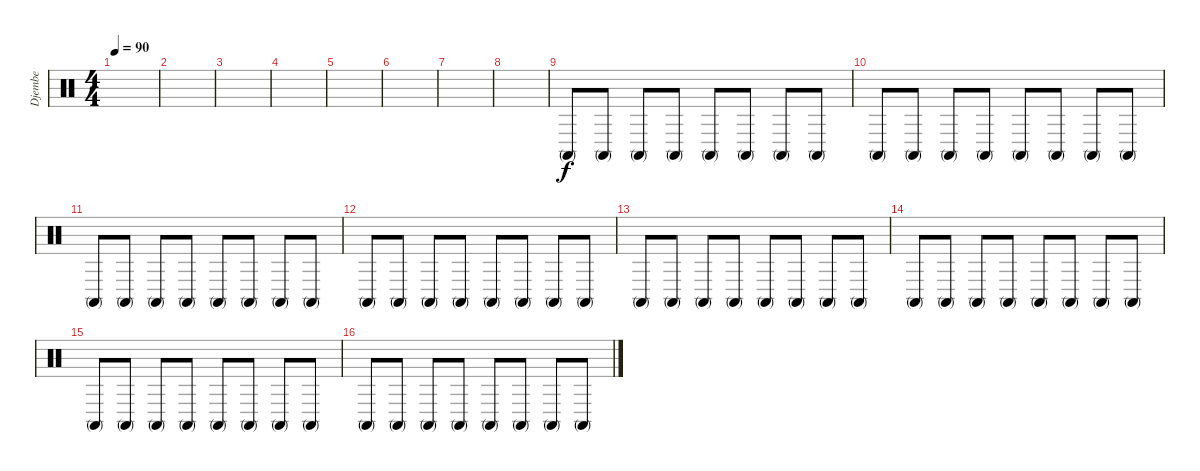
\track ("Djembe" "Djembe") {instrument percussion}
\staff {score}
\articulation defaults
\ts (4 4)
\tempo 90
\clef neutral
\ks c
|
|
|
|
|
|
|
|
"Conga high (mute)".8 "Conga high (mute)".8 "Conga high (mute)".8 "Conga high (mute)".8 "Conga high (mute)".8 "Conga high (mute)".8 "Conga high (mute)".8 "Conga high (mute)".8 |
"Conga high (mute)".8 "Conga high (mute)".8 "Conga high (mute)".8 "Conga high (mute)".8 "Conga high (mute)".8 "Conga high (mute)".8 "Conga high (mute)".8 "Conga high (mute)".8 |
"Conga high (mute)".8 "Conga high (mute)".8 "Conga high (mute)".8 "Conga high (mute)".8 "Conga high (mute)".8 "Conga high (mute)".8 "Conga high (mute)".8 "Conga high (mute)".8 |
"Conga high (mute)".8 "Conga high (mute)".8 "Conga high (mute)".8 "Conga high (mute)".8 "Conga high (mute)".8 "Conga high (mute)".8 "Conga high (mute)".8 "Conga high (mute)".8 |
"Conga high (mute)".8 "Conga high (mute)".8 "Conga high (mute)".8 "Conga high (mute)".8 "Conga high (mute)".8 "Conga high (mute)".8 "Conga high (mute)".8 "Conga high (mute)".8 |
"Conga high (mute)".8 "Conga high (mute)".8 "Conga high (mute)".8 "Conga high (mute)".8 "Conga high (mute)".8 "Conga high (mute)".8 "Conga high (mute)".8 "Conga high (mute)".8 |
"Conga high (mute)".8 "Conga high (mute)".8 "Conga high (mute)".8 "Conga high (mute)".8 "Conga high (mute)".8 "Conga high (mute)".8 "Conga high (mute)".8 "Conga high (mute)".8 |
"Conga high (mute)".8 "Conga high (mute)".8 "Conga high (mute)".8 "Conga high (mute)".8 "Conga high (mute)".8 "Conga high (mute)".8 "Conga high (mute)".8 "Conga high (mute)".8
